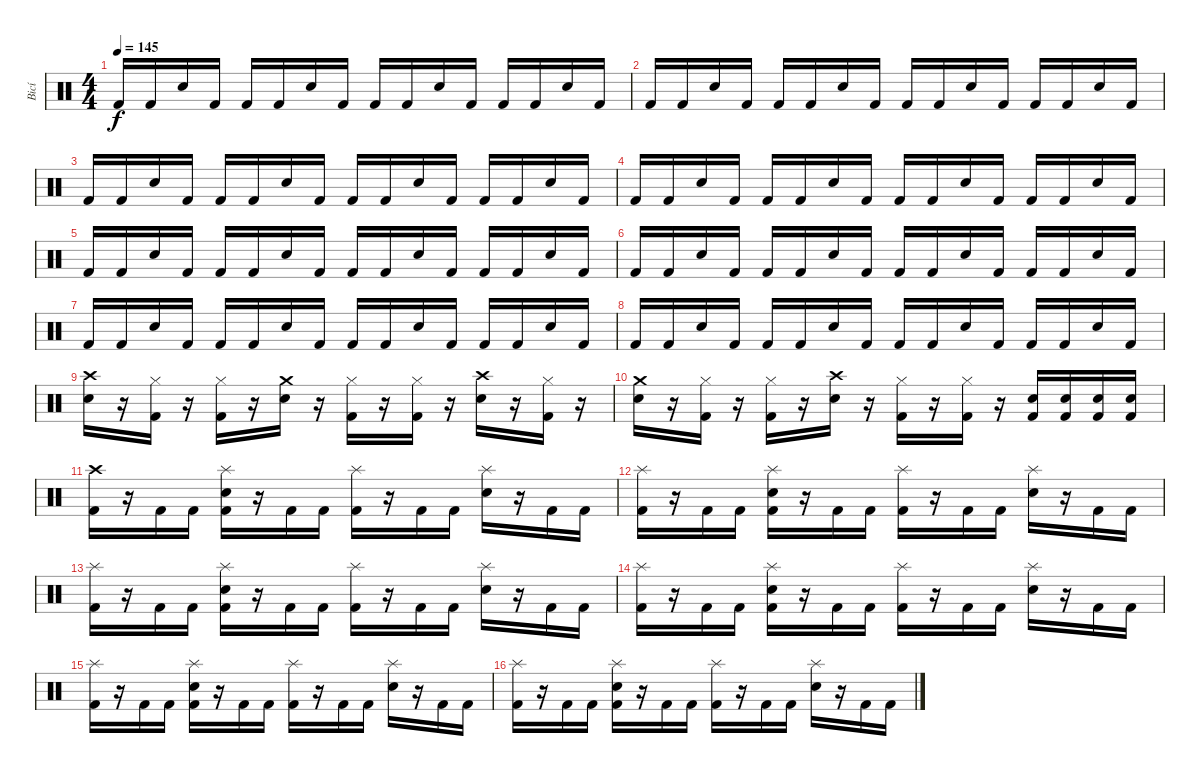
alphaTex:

\track ("Bicí" "Bicí") {instrument percussion}
\staff {score}
\articulation defaults
\ts (4 4)
\tempo 145
\clef neutral
\ks c "Kick (hit) 2".16{dy f} "Kick (hit) 2".16 "Electric Snare (hit)".16 "Kick (hit) 2".16 "Kick (hit) 2".16 "Kick (hit) 2".16 "Electric Snare (hit)".16 "Kick (hit) 2".16 "Kick (hit) 2".16 "Kick (hit) 2".16 "Electric Snare (hit)".16 "Kick (hit) 2".16 "Kick (hit) 2".16 "Kick (hit) 2".16 "Electric Snare (hit)".16 "Kick (hit) 2".16
|
"Kick (hit) 2".16 "Kick (hit) 2".16 "Electric Snare (hit)".16 "Kick (hit) 2".16 "Kick (hit) 2".16 "Kick (hit) 2".16 "Electric Snare (hit)".16 "Kick (hit) 2".16 "Kick (hit) 2".16 "Kick (hit) 2".16 "Electric Snare (hit)".16 "Kick (hit) 2".16 "Kick (hit) 2".16 "Kick (hit) 2".16 "Electric Snare (hit)".16 "Kick (hit) 2".16 |
"Kick (hit) 2".16 "Kick (hit) 2".16 "Electric Snare (hit)".16 "Kick (hit) 2".16 "Kick (hit) 2".16 "Kick (hit) 2".16 "Electric Snare (hit)".16 "Kick (hit) 2".16 "Kick (hit) 2".16 "Kick (hit) 2".16 "Electric Snare (hit)".16 "Kick (hit) 2".16 "Kick (hit) 2".16 "Kick (hit) 2".16 "Electric Snare (hit)".16 "Kick (hit) 2".16 |
"Kick (hit) 2".16 "Kick (hit) 2".16 "Electric Snare (hit)".16 "Kick (hit) 2".16 "Kick (hit) 2".16 "Kick (hit) 2".16 "Electric Snare (hit)".16 "Kick (hit) 2".16 "Kick (hit) 2".16 "Kick (hit) 2".16 "Electric Snare (hit)".16 "Kick (hit) 2".16 "Kick (hit) 2".16 "Kick (hit) 2".16 "Electric Snare (hit)".16 "Kick (hit) 2".16 |
"Kick (hit) 2".16 "Kick (hit) 2".16 "Electric Snare (hit)".16 "Kick (hit) 2".16 "Kick (hit) 2".16 "Kick (hit) 2".16 "Electric Snare (hit)".16 "Kick (hit) 2".16 "Kick (hit) 2".16 "Kick (hit) 2".16 "Electric Snare (hit)".16 "Kick (hit) 2".16 "Kick (hit) 2".16 "Kick (hit) 2".16 "Electric Snare (hit)".16 "Kick (hit) 2".16 |
"Kick (hit) 2".16 "Kick (hit) 2".16 "Electric Snare (hit)".16 "Kick (hit) 2".16 "Kick (hit) 2".16 "Kick (hit) 2".16 "Electric Snare (hit)".16 "Kick (hit) 2".16 "Kick (hit) 2".16 "Kick (hit) 2".16 "Electric Snare (hit)".16 "Kick (hit) 2".16 "Kick (hit) 2".16 "Kick (hit) 2".16 "Electric Snare (hit)".16 "Kick (hit) 2".16 |
"Kick (hit) 2".16 "Kick (hit) 2".16 "Electric Snare (hit)".16 "Kick (hit) 2".16 "Kick (hit) 2".16 "Kick (hit) 2".16 "Electric Snare (hit)".16 "Kick (hit) 2".16 "Kick (hit) 2".16 "Kick (hit) 2".16 "Electric Snare (hit)".16 "Kick (hit) 2".16 "Kick (hit) 2".16 "Kick (hit) 2".16 "Electric Snare (hit)".16 "Kick (hit) 2".16 |
"Kick (hit) 2".16 "Kick (hit) 2".16 "Electric Snare (hit)".16 "Kick (hit) 2".16 "Kick (hit) 2".16 "Kick (hit) 2".16 "Electric Snare (hit)".16 "Kick (hit) 2".16 "Kick (hit) 2".16 "Kick (hit) 2".16 "Electric Snare (hit)".16 "Kick (hit) 2".16 "Kick (hit) 2".16 "Kick (hit) 2".16 "Electric Snare (hit)".16 "Kick (hit) 2".16 |
("Electric Snare (hit)" "Crash high (hit)").16 r.16 ("Hi-Hat (closed)" "Kick (hit) 2").16 r.16 ("Hi-Hat (closed)" "Kick (hit) 2").16 r.16 ("Electric Snare (hit)" "Crash medium (hit)").16 r.16 ("Hi-Hat (closed)" "Kick (hit) 2").16 r.16 ("Hi-Hat (closed)" "Kick (hit) 2").16 r.16 ("Electric Snare (hit)" "Crash high (hit)").16 r.16 ("Hi-Hat (closed)" "Kick (hit) 2").16 r.16 |
("Electric Snare (hit)" "Crash medium (hit)").16 r.16 ("Hi-Hat (closed)" "Kick (hit) 2").16 r.16 ("Hi-Hat (closed)" "Kick (hit) 2").16 r.16 ("Electric Snare (hit)" "Crash high (hit)").16 r.16 ("Hi-Hat (closed)" "Kick (hit) 2").16 r.16 ("Hi-Hat (closed)" "Kick (hit) 2").16 r.16 ("Electric Snare (hit)" "Kick (hit) 2").16 ("Electric Snare (hit)" "Kick (hit) 2").16 ("Electric Snare (hit)" "Kick (hit) 2").16 ("Electric Snare (hit)" "Kick (hit) 2").16 |
("Kick (hit) 2" "Crash high (hit)").16 r.16 "Kick (hit) 2".16 "Kick (hit) 2".16 ("Kick (hit) 2" "Electric Snare (hit)" "Splash (hit)").16 r.16 "Kick (hit) 2".16 "Kick (hit) 2".16 ("Kick (hit) 2" "Splash (hit)").16 r.16 "Kick (hit) 2".16 "Kick (hit) 2".16 ("Electric Snare (hit)" "Splash (hit)").16 r.16 "Kick (hit) 2".16 "Kick (hit) 2".16 |
("Kick (hit) 2" "Splash (hit)").16 r.16 "Kick (hit) 2".16 "Kick (hit) 2".16 ("Kick (hit) 2" "Electric Snare (hit)" "Splash (hit)").16 r.16 "Kick (hit) 2".16 "Kick (hit) 2".16 ("Kick (hit) 2" "Splash (hit)").16 r.16 "Kick (hit) 2".16 "Kick (hit) 2".16 ("Electric Snare (hit)" "Splash (hit)").16 r.16 "Kick (hit) 2".16 "Kick (hit) 2".16 |
("Kick (hit) 2" "Splash (hit)").16 r.16 "Kick (hit) 2".16 "Kick (hit) 2".16 ("Kick (hit) 2" "Electric Snare (hit)" "Splash (hit)").16 r.16 "Kick (hit) 2".16 "Kick (hit) 2".16 ("Kick (hit) 2" "Splash (hit)").16 r.16 "Kick (hit) 2".16 "Kick (hit) 2".16 ("Electric Snare (hit)" "Splash (hit)").16 r.16 "Kick (hit) 2".16 "Kick (hit) 2".16 |
("Kick (hit) 2" "Splash (hit)").16 r.16 "Kick (hit) 2".16 "Kick (hit) 2".16 ("Kick (hit) 2" "Electric Snare (hit)" "Splash (hit)").16 r.16 "Kick (hit) 2".16 "Kick (hit) 2".16 ("Kick (hit) 2" "Splash (hit)").16 r.16 "Kick (hit) 2".16 "Kick (hit) 2".16 ("Electric Snare (hit)" "Splash (hit)").16 r.16 "Kick (hit) 2".16 "Kick (hit) 2".16 |
("Kick (hit) 2" "Splash (hit)").16 r.16 "Kick (hit) 2".16 "Kick (hit) 2".16 ("Kick (hit) 2" "Electric Snare (hit)" "Splash (hit)").16 r.16 "Kick (hit) 2".16 "Kick (hit) 2".16 ("Kick (hit) 2" "Splash (hit)").16 r.16 "Kick (hit) 2".16 "Kick (hit) 2".16 ("Electric Snare (hit)" "Splash (hit)").16 r.16 "Kick (hit) 2".16 "Kick (hit) 2".16 |
("Kick (hit) 2" "Splash (hit)").16 r.16 "Kick (hit) 2".16 "Kick (hit) 2".16 ("Kick (hit) 2" "Electric Snare (hit)" "Splash (hit)").16 r.16 "Kick (hit) 2".16 "Kick (hit) 2".16 ("Kick (hit) 2" "Splash (hit)").16 r.16 "Kick (hit) 2".16 "Kick (hit) 2".16 ("Electric Snare (hit)" "Splash (hit)").16 r.16 "Kick (hit) 2".16 "Kick (hit) 2".16
